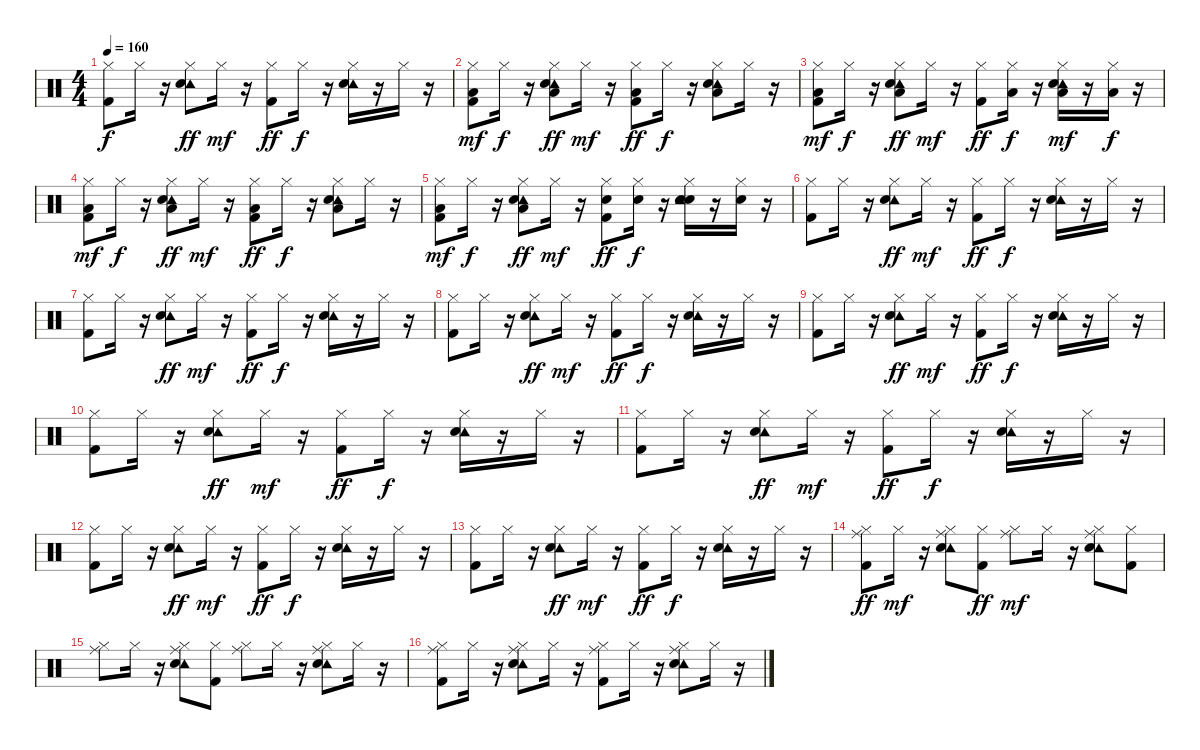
\track "" {instrument percussion}
\staff {score}
\articulation defaults
\ts (4 4)
\tempo 160
\clef neutral
\ks c
("Hi-Hat (closed)" "Kick (hit) 2").8{dy f} "Hi-Hat (closed)".16 r.16 ("Tambourine (hit)" "Hi-Hat (closed)" "Snare (hit) 2").8{dy ff} "Hi-Hat (closed)".16{dy mf} r.16 ("Hi-Hat (closed)" "Kick (hit) 2").8{dy ff} "Hi-Hat (closed)".16{dy f} r.16 ("Tambourine (hit)" "Hi-Hat (closed)" "Snare (hit) 2").16 r.16 "Hi-Hat (closed)".16 r.16 |
("Low Floor Tom (hit)" "Hi-Hat (closed)" "Kick (hit) 2").8{dy mf} "Hi-Hat (closed)".16{dy f} r.16 ("Low Floor Tom (hit)" "Tambourine (hit)" "Hi-Hat (closed)" "Snare (hit) 2").8{dy ff} "Hi-Hat (closed)".16{dy mf} r.16 ("Low Floor Tom (hit)" "Hi-Hat (closed)" "Kick (hit) 2").8{dy ff} "Hi-Hat (closed)".16{dy f} r.16 ("Low Floor Tom (hit)" "Tambourine (hit)" "Hi-Hat (closed)" "Snare (hit) 2").8 "Hi-Hat (closed)".16 r.16 |
("Low Floor Tom (hit)" "Hi-Hat (closed)" "Kick (hit) 2").8{dy mf} "Hi-Hat (closed)".16{dy f} r.16 ("Low Floor Tom (hit)" "Tambourine (hit)" "Hi-Hat (closed)" "Snare (hit) 2").8{dy ff} "Hi-Hat (closed)".16{dy mf} r.16 ("Hi-Hat (closed)" "Kick (hit) 2").8{dy ff} ("Low Floor Tom (hit)" "Hi-Hat (closed)").16{dy f} r.16 ("Low Floor Tom (hit)" "Tambourine (hit)" "Hi-Hat (closed)" "Snare (hit) 2").16{dy mf} r.16 ("Low Floor Tom (hit)" "Hi-Hat (closed)").16{dy f} r.16 |
("Low Floor Tom (hit)" "Hi-Hat (closed)" "Kick (hit) 2").8{dy mf} "Hi-Hat (closed)".16{dy f} r.16 ("Low Floor Tom (hit)" "Tambourine (hit)" "Hi-Hat (closed)" "Snare (hit) 2").8{dy ff} "Hi-Hat (closed)".16{dy mf} r.16 ("Low Floor Tom (hit)" "Hi-Hat (closed)" "Kick (hit) 2").8{dy ff} "Hi-Hat (closed)".16{dy f} r.16 ("Low Floor Tom (hit)" "Tambourine (hit)" "Hi-Hat (closed)" "Snare (hit) 2").8 "Hi-Hat (closed)".16 r.16 |
("Low Floor Tom (hit)" "Hi-Hat (closed)" "Kick (hit) 2").8{dy mf} "Hi-Hat (closed)".16{dy f} r.16 ("Low Floor Tom (hit)" "Tambourine (hit)" "Hi-Hat (closed)" "Snare (hit) 2").8{dy ff} "Hi-Hat (closed)".16{dy mf} r.16 ("Electric Snare (hit)" "Hi-Hat (closed)" "Kick (hit) 2").8{dy ff} ("Electric Snare (hit)" "Hi-Hat (closed)").16{dy f} r.16 ("Electric Snare (hit)" "Tambourine (hit)" "Hi-Hat (closed)" "Snare (hit) 2").16 r.16 ("Electric Snare (hit)" "Hi-Hat (closed)").16 r.16 |
("Hi-Hat (closed)" "Kick (hit) 2").8 "Hi-Hat (closed)".16 r.16 ("Tambourine (hit)" "Hi-Hat (closed)" "Snare (hit) 2").8{dy ff} "Hi-Hat (closed)".16{dy mf} r.16 ("Hi-Hat (closed)" "Kick (hit) 2").8{dy ff} "Hi-Hat (closed)".16{dy f} r.16 ("Tambourine (hit)" "Hi-Hat (closed)" "Snare (hit) 2").16 r.16 "Hi-Hat (closed)".16 r.16 |
("Hi-Hat (closed)" "Kick (hit) 2").8 "Hi-Hat (closed)".16 r.16 ("Tambourine (hit)" "Hi-Hat (closed)" "Snare (hit) 2").8{dy ff} "Hi-Hat (closed)".16{dy mf} r.16 ("Hi-Hat (closed)" "Kick (hit) 2").8{dy ff} "Hi-Hat (closed)".16{dy f} r.16 ("Tambourine (hit)" "Hi-Hat (closed)" "Snare (hit) 2").16 r.16 "Hi-Hat (closed)".16 r.16 |
("Hi-Hat (closed)" "Kick (hit) 2").8 "Hi-Hat (closed)".16 r.16 ("Tambourine (hit)" "Hi-Hat (closed)" "Snare (hit) 2").8{dy ff} "Hi-Hat (closed)".16{dy mf} r.16 ("Hi-Hat (closed)" "Kick (hit) 2").8{dy ff} "Hi-Hat (closed)".16{dy f} r.16 ("Tambourine (hit)" "Hi-Hat (closed)" "Snare (hit) 2").16 r.16 "Hi-Hat (closed)".16 r.16 |
("Hi-Hat (closed)" "Kick (hit) 2").8 "Hi-Hat (closed)".16 r.16 ("Tambourine (hit)" "Hi-Hat (closed)" "Snare (hit) 2").8{dy ff} "Hi-Hat (closed)".16{dy mf} r.16 ("Hi-Hat (closed)" "Kick (hit) 2").8{dy ff} "Hi-Hat (closed)".16{dy f} r.16 ("Tambourine (hit)" "Hi-Hat (closed)" "Snare (hit) 2").16 r.16 "Hi-Hat (closed)".16 r.16 |
("Hi-Hat (closed)" "Kick (hit) 2").8 "Hi-Hat (closed)".16 r.16 ("Tambourine (hit)" "Hi-Hat (closed)" "Snare (hit) 2").8{dy ff} "Hi-Hat (closed)".16{dy mf} r.16 ("Hi-Hat (closed)" "Kick (hit) 2").8{dy ff} "Hi-Hat (closed)".16{dy f} r.16 ("Tambourine (hit)" "Hi-Hat (closed)" "Snare (hit) 2").16 r.16 "Hi-Hat (closed)".16 r.16 |
("Hi-Hat (closed)" "Kick (hit) 2").8 "Hi-Hat (closed)".16 r.16 ("Tambourine (hit)" "Hi-Hat (closed)" "Snare (hit) 2").8{dy ff} "Hi-Hat (closed)".16{dy mf} r.16 ("Hi-Hat (closed)" "Kick (hit) 2").8{dy ff} "Hi-Hat (closed)".16{dy f} r.16 ("Tambourine (hit)" "Hi-Hat (closed)" "Snare (hit) 2").16 r.16 "Hi-Hat (closed)".16 r.16 |
("Hi-Hat (closed)" "Kick (hit) 2").8 "Hi-Hat (closed)".16 r.16 ("Tambourine (hit)" "Hi-Hat (closed)" "Snare (hit) 2").8{dy ff} "Hi-Hat (closed)".16{dy mf} r.16 ("Hi-Hat (closed)" "Kick (hit) 2").8{dy ff} "Hi-Hat (closed)".16{dy f} r.16 ("Tambourine (hit)" "Hi-Hat (closed)" "Snare (hit) 2").16 r.16 "Hi-Hat (closed)".16 r.16 |
("Hi-Hat (closed)" "Kick (hit) 2").8 "Hi-Hat (closed)".16 r.16 ("Tambourine (hit)" "Hi-Hat (closed)" "Snare (hit) 2").8{dy ff} "Hi-Hat (closed)".16{dy mf} r.16 ("Hi-Hat (closed)" "Kick (hit) 2").8{dy ff} "Hi-Hat (closed)".16{dy f} r.16 ("Tambourine (hit)" "Hi-Hat (closed)" "Snare (hit) 2").16 r.16 "Hi-Hat (closed)".16 r.16 |
("Ride (middle)" "Hi-Hat (closed)" "Kick (hit) 2").8{dy ff} "Hi-Hat (closed)".16{dy mf} r.16 ("Tambourine (hit)" "Ride (middle)" "Hi-Hat (closed)" "Snare (hit) 2").8 ("Hi-Hat (closed)" "Kick (hit) 2").8{dy ff} ("Ride (middle)" "Hi-Hat (closed)").8{dy mf} "Hi-Hat (closed)".16 r.16 ("Tambourine (hit)" "Ride (middle)" "Hi-Hat (closed)" "Snare (hit) 2").8 ("Hi-Hat (closed)" "Kick (hit) 2").8 |
("Ride (middle)" "Hi-Hat (closed)").8 "Hi-Hat (closed)".16 r.16 ("Tambourine (hit)" "Ride (middle)" "Hi-Hat (closed)" "Snare (hit) 2").8 ("Hi-Hat (closed)" "Kick (hit) 2").8 ("Ride (middle)" "Hi-Hat (closed)").8 "Hi-Hat (closed)".16 r.16 ("Tambourine (hit)" "Ride (middle)" "Hi-Hat (closed)" "Snare (hit) 2").8 "Hi-Hat (closed)".16 r.16 |
("Ride (middle)" "Hi-Hat (closed)" "Kick (hit) 2").8 "Hi-Hat (closed)".16 r.16 ("Tambourine (hit)" "Ride (middle)" "Hi-Hat (closed)" "Snare (hit) 2").8 "Hi-Hat (closed)".16 r.16 ("Ride (middle)" "Hi-Hat (closed)" "Kick (hit) 2").8 "Hi-Hat (closed)".16 r.16 ("Tambourine (hit)" "Ride (middle)" "Hi-Hat (closed)" "Snare (hit) 2").8 "Hi-Hat (closed)".16 r.16
